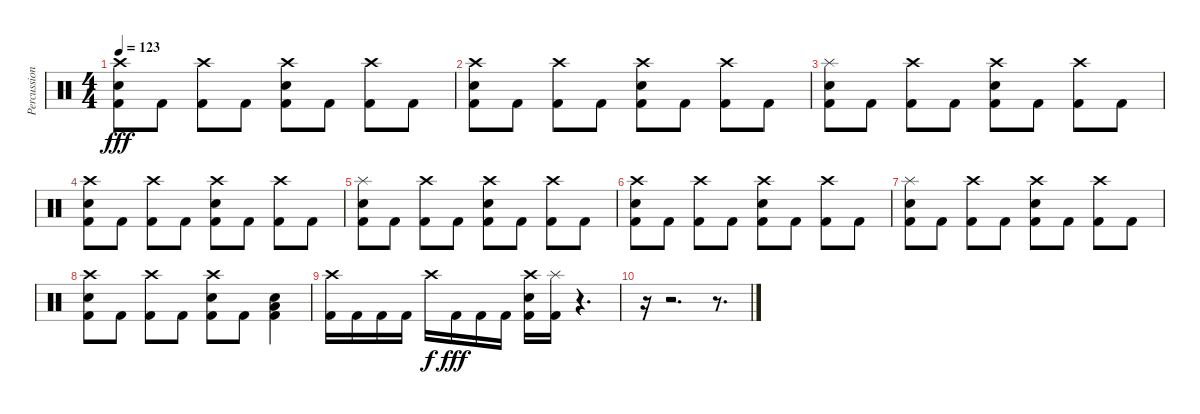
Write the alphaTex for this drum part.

\track ("Percussion" "Percussion") {instrument percussion}
\staff {score}
\articulation defaults
\ts (4 4)
\tempo 123
\clef neutral
\ks c
("Crash high (hit)" "Snare (hit) 2" "Kick (hit) 2").8{dy fff} "Kick (hit) 2".8 ("Crash high (hit)" "Kick (hit) 2").8 "Kick (hit) 2".8 ("Crash high (hit)" "Snare (hit) 2" "Kick (hit) 2").8 "Kick (hit) 2".8 ("Crash high (hit)" "Kick (hit) 2").8 "Kick (hit) 2".8 |
("Crash high (hit)" "Snare (hit) 2" "Kick (hit) 2").8 "Kick (hit) 2".8 ("Crash high (hit)" "Kick (hit) 2").8 "Kick (hit) 2".8 ("Crash high (hit)" "Snare (hit) 2" "Kick (hit) 2").8 "Kick (hit) 2".8 ("Crash high (hit)" "Kick (hit) 2").8 "Kick (hit) 2".8 |
("Splash (hit)" "Snare (hit) 2" "Kick (hit) 2").8 "Kick (hit) 2".8 ("Crash high (hit)" "Kick (hit) 2").8 "Kick (hit) 2".8 ("Crash high (hit)" "Snare (hit) 2" "Kick (hit) 2").8 "Kick (hit) 2".8 ("Crash high (hit)" "Kick (hit) 2").8 "Kick (hit) 2".8 |
("Crash high (hit)" "Snare (hit) 2" "Kick (hit) 2").8 "Kick (hit) 2".8 ("Crash high (hit)" "Kick (hit) 2").8 "Kick (hit) 2".8 ("Crash high (hit)" "Snare (hit) 2" "Kick (hit) 2").8 "Kick (hit) 2".8 ("Crash high (hit)" "Kick (hit) 2").8 "Kick (hit) 2".8 |
("Splash (hit)" "Snare (hit) 2" "Kick (hit) 2").8 "Kick (hit) 2".8 ("Crash high (hit)" "Kick (hit) 2").8 "Kick (hit) 2".8 ("Crash high (hit)" "Snare (hit) 2" "Kick (hit) 2").8 "Kick (hit) 2".8 ("Crash high (hit)" "Kick (hit) 2").8 "Kick (hit) 2".8 |
("Crash high (hit)" "Snare (hit) 2" "Kick (hit) 2").8 "Kick (hit) 2".8 ("Crash high (hit)" "Kick (hit) 2").8 "Kick (hit) 2".8 ("Crash high (hit)" "Snare (hit) 2" "Kick (hit) 2").8 "Kick (hit) 2".8 ("Crash high (hit)" "Kick (hit) 2").8 "Kick (hit) 2".8 |
("Splash (hit)" "Snare (hit) 2" "Kick (hit) 2").8 "Kick (hit) 2".8 ("Crash high (hit)" "Kick (hit) 2").8 "Kick (hit) 2".8 ("Crash high (hit)" "Snare (hit) 2" "Kick (hit) 2").8 "Kick (hit) 2".8 ("Crash high (hit)" "Kick (hit) 2").8 "Kick (hit) 2".8 |
("Crash high (hit)" "Snare (hit) 2" "Kick (hit) 2").8 "Kick (hit) 2".8 ("Crash high (hit)" "Kick (hit) 2").8 "Kick (hit) 2".8 ("Crash high (hit)" "Snare (hit) 2" "Kick (hit) 2").8 "Kick (hit) 2".8 ("Low Floor Tom (hit)" "Snare (hit) 2" "Kick (hit) 2").4 |
("Crash high (hit)" "Kick (hit) 2").16 "Kick (hit) 2".16 "Kick (hit) 2".16 "Kick (hit) 2".16 "Crash high (hit)".16{dy f} "Kick (hit) 2".16{dy fff} "Kick (hit) 2".16 "Kick (hit) 2".16 ("Crash high (hit)" "Snare (hit) 2" "Kick (hit) 2").16 ("Splash (hit)" "Kick (hit) 2").16 r.4{d} |
r.16 r.2{d} r.8{d}
